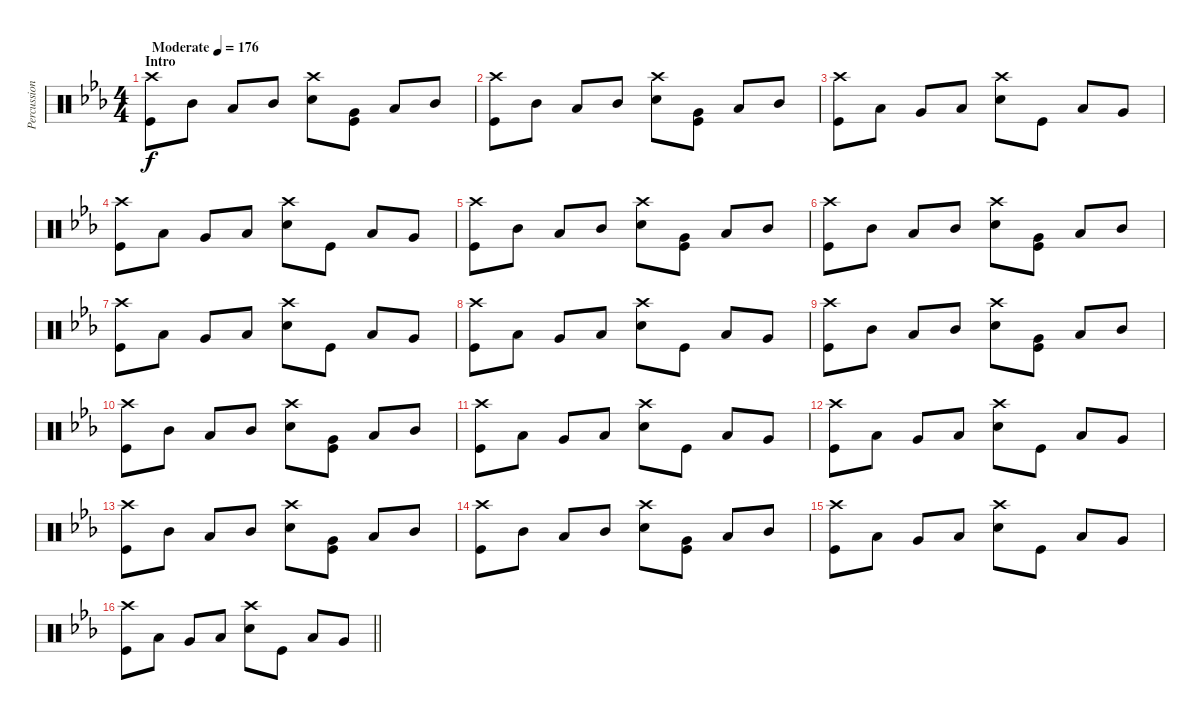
\track ("Percussion" "Percussion") {instrument percussion}
\staff {score}
\articulation defaults
\ts (4 4)
\section ("" "Intro")
\tempo (176 "Moderate")
\clef neutral
\ks eb
("Crash high (hit)" "Kick (hit)").8{dy f} "Mid Tom (hit)".8 "Low Tom (hit)".8 "Mid Tom (hit)".8 ("Crash high (hit)" "Electric Snare (hit)").8 ("Very Low Tom (hit)" "Kick (hit)").8 "Low Tom (hit)".8 "Mid Tom (hit)".8 |
("Crash high (hit)" "Kick (hit)").8 "Mid Tom (hit)".8 "Low Tom (hit)".8 "Mid Tom (hit)".8 ("Crash high (hit)" "Electric Snare (hit)").8 ("Very Low Tom (hit)" "Kick (hit)").8 "Low Tom (hit)".8 "Mid Tom (hit)".8 |
("Crash high (hit)" "Kick (hit)").8 "Low Tom (hit)".8 "Very Low Tom (hit)".8 "Low Tom (hit)".8 ("Crash high (hit)" "Electric Snare (hit)").8 "Kick (hit)".8 "Low Floor Tom (hit)".8 "Very Low Tom (hit)".8 |
("Crash high (hit)" "Kick (hit)").8 "Low Tom (hit)".8 "Very Low Tom (hit)".8 "Low Tom (hit)".8 ("Crash high (hit)" "Electric Snare (hit)").8 "Kick (hit)".8 "Low Floor Tom (hit)".8 "Very Low Tom (hit)".8 |
("Crash high (hit)" "Kick (hit)").8 "Mid Tom (hit)".8 "Low Tom (hit)".8 "Mid Tom (hit)".8 ("Crash high (hit)" "Electric Snare (hit)").8 ("Very Low Tom (hit)" "Kick (hit)").8 "Low Tom (hit)".8 "Mid Tom (hit)".8 |
("Crash high (hit)" "Kick (hit)").8 "Mid Tom (hit)".8 "Low Tom (hit)".8 "Mid Tom (hit)".8 ("Crash high (hit)" "Electric Snare (hit)").8 ("Very Low Tom (hit)" "Kick (hit)").8 "Low Tom (hit)".8 "Mid Tom (hit)".8 |
("Crash high (hit)" "Kick (hit)").8 "Low Tom (hit)".8 "Very Low Tom (hit)".8 "Low Tom (hit)".8 ("Crash high (hit)" "Electric Snare (hit)").8 "Kick (hit)".8 "Low Floor Tom (hit)".8 "Very Low Tom (hit)".8 |
("Crash high (hit)" "Kick (hit)").8 "Low Tom (hit)".8 "Very Low Tom (hit)".8 "Low Tom (hit)".8 ("Crash high (hit)" "Electric Snare (hit)").8 "Kick (hit)".8 "Low Floor Tom (hit)".8 "Very Low Tom (hit)".8 |
("Crash high (hit)" "Kick (hit)").8 "Mid Tom (hit)".8 "Low Tom (hit)".8 "Mid Tom (hit)".8 ("Crash high (hit)" "Electric Snare (hit)").8 ("Very Low Tom (hit)" "Kick (hit)").8 "Low Tom (hit)".8 "Mid Tom (hit)".8 |
("Crash high (hit)" "Kick (hit)").8 "Mid Tom (hit)".8 "Low Tom (hit)".8 "Mid Tom (hit)".8 ("Crash high (hit)" "Electric Snare (hit)").8 ("Very Low Tom (hit)" "Kick (hit)").8 "Low Tom (hit)".8 "Mid Tom (hit)".8 |
("Crash high (hit)" "Kick (hit)").8 "Low Tom (hit)".8 "Very Low Tom (hit)".8 "Low Tom (hit)".8 ("Crash high (hit)" "Electric Snare (hit)").8 "Kick (hit)".8 "Low Floor Tom (hit)".8 "Very Low Tom (hit)".8 |
("Crash high (hit)" "Kick (hit)").8 "Low Tom (hit)".8 "Very Low Tom (hit)".8 "Low Tom (hit)".8 ("Crash high (hit)" "Electric Snare (hit)").8 "Kick (hit)".8 "Low Floor Tom (hit)".8 "Very Low Tom (hit)".8 |
("Crash high (hit)" "Kick (hit)").8 "Mid Tom (hit)".8 "Low Tom (hit)".8 "Mid Tom (hit)".8 ("Crash high (hit)" "Electric Snare (hit)").8 ("Very Low Tom (hit)" "Kick (hit)").8 "Low Tom (hit)".8 "Mid Tom (hit)".8 |
("Crash high (hit)" "Kick (hit)").8 "Mid Tom (hit)".8 "Low Tom (hit)".8 "Mid Tom (hit)".8 ("Crash high (hit)" "Electric Snare (hit)").8 ("Very Low Tom (hit)" "Kick (hit)").8 "Low Tom (hit)".8 "Mid Tom (hit)".8 |
("Crash high (hit)" "Kick (hit)").8 "Low Tom (hit)".8 "Very Low Tom (hit)".8 "Low Tom (hit)".8 ("Crash high (hit)" "Electric Snare (hit)").8 "Kick (hit)".8 "Low Floor Tom (hit)".8 "Very Low Tom (hit)".8 |
\barLineRight lightlight
("Crash high (hit)" "Kick (hit)").8 "Low Tom (hit)".8 "Very Low Tom (hit)".8 "Low Tom (hit)".8 ("Crash high (hit)" "Electric Snare (hit)").8 "Kick (hit)".8 "Low Floor Tom (hit)".8 "Very Low Tom (hit)".8
